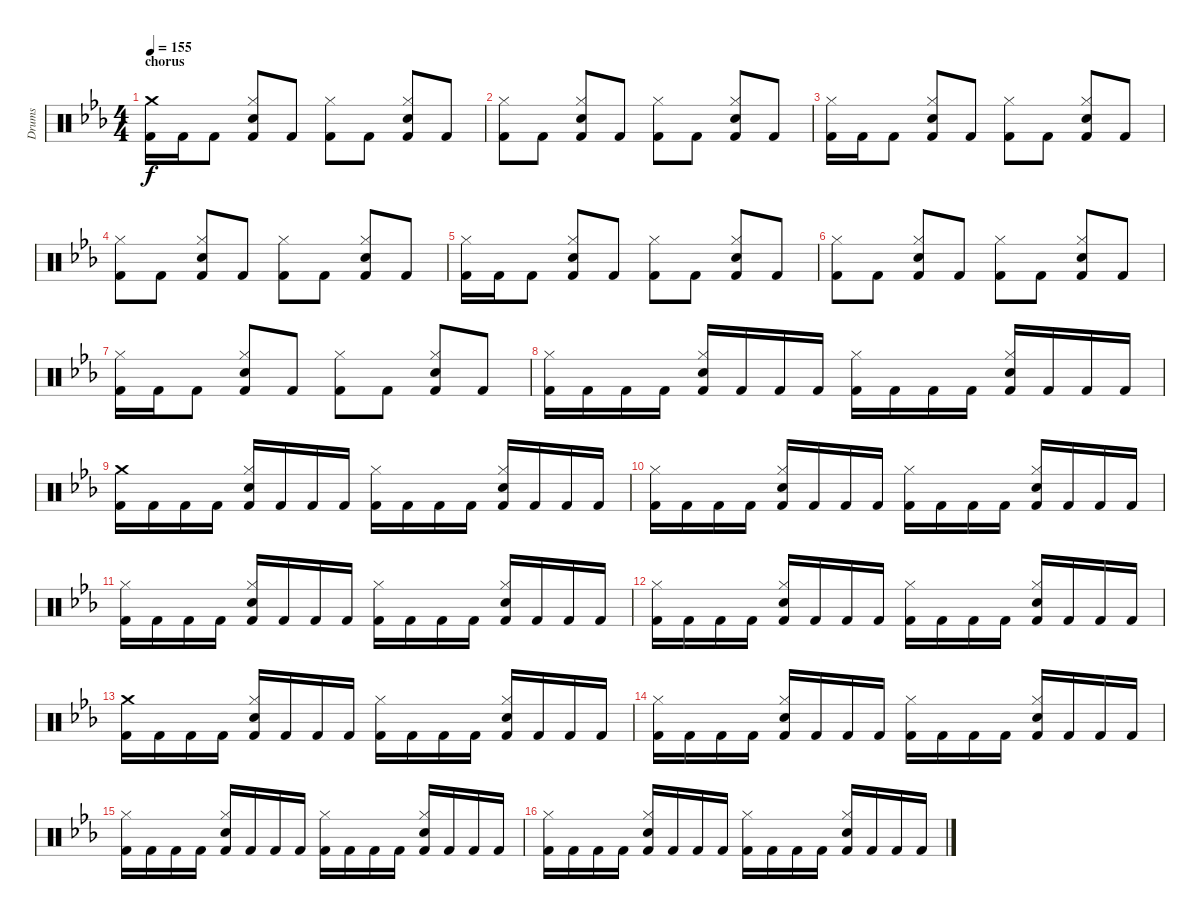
\track ("Drums" "Drums") {instrument percussion}
\staff {score}
\articulation defaults
\ts (4 4)
\section ("" "chorus")
\tempo 155
\clef neutral
\ks cminor
("Crash medium (hit)" "Kick (hit) 2").16{dy f} "Kick (hit) 2".16 "Kick (hit) 2".8 ("Hi-Hat (closed)" "Electric Snare (hit)" "Kick (hit) 2").8 "Kick (hit) 2".8 ("Hi-Hat (closed)" "Kick (hit) 2").8 "Kick (hit) 2".8 ("Hi-Hat (closed)" "Electric Snare (hit)" "Kick (hit) 2").8 "Kick (hit) 2".8 |
("Hi-Hat (closed)" "Kick (hit) 2").8 "Kick (hit) 2".8 ("Hi-Hat (closed)" "Electric Snare (hit)" "Kick (hit) 2").8 "Kick (hit) 2".8 ("Hi-Hat (closed)" "Kick (hit) 2").8 "Kick (hit) 2".8 ("Hi-Hat (closed)" "Electric Snare (hit)" "Kick (hit) 2").8 "Kick (hit) 2".8 |
("Kick (hit) 2" "Hi-Hat (closed)").16 "Kick (hit) 2".16 "Kick (hit) 2".8 ("Hi-Hat (closed)" "Electric Snare (hit)" "Kick (hit) 2").8 "Kick (hit) 2".8 ("Hi-Hat (closed)" "Kick (hit) 2").8 "Kick (hit) 2".8 ("Hi-Hat (closed)" "Electric Snare (hit)" "Kick (hit) 2").8 "Kick (hit) 2".8 |
("Hi-Hat (closed)" "Kick (hit) 2").8 "Kick (hit) 2".8 ("Hi-Hat (closed)" "Electric Snare (hit)" "Kick (hit) 2").8 "Kick (hit) 2".8 ("Hi-Hat (closed)" "Kick (hit) 2").8 "Kick (hit) 2".8 ("Hi-Hat (closed)" "Electric Snare (hit)" "Kick (hit) 2").8 "Kick (hit) 2".8 |
("Kick (hit) 2" "Hi-Hat (closed)").16 "Kick (hit) 2".16 "Kick (hit) 2".8 ("Hi-Hat (closed)" "Electric Snare (hit)" "Kick (hit) 2").8 "Kick (hit) 2".8 ("Hi-Hat (closed)" "Kick (hit) 2").8 "Kick (hit) 2".8 ("Hi-Hat (closed)" "Electric Snare (hit)" "Kick (hit) 2").8 "Kick (hit) 2".8 |
("Hi-Hat (closed)" "Kick (hit) 2").8 "Kick (hit) 2".8 ("Hi-Hat (closed)" "Electric Snare (hit)" "Kick (hit) 2").8 "Kick (hit) 2".8 ("Hi-Hat (closed)" "Kick (hit) 2").8 "Kick (hit) 2".8 ("Hi-Hat (closed)" "Electric Snare (hit)" "Kick (hit) 2").8 "Kick (hit) 2".8 |
("Kick (hit) 2" "Hi-Hat (closed)").16 "Kick (hit) 2".16 "Kick (hit) 2".8 ("Hi-Hat (closed)" "Electric Snare (hit)" "Kick (hit) 2").8 "Kick (hit) 2".8 ("Hi-Hat (closed)" "Kick (hit) 2").8 "Kick (hit) 2".8 ("Hi-Hat (closed)" "Electric Snare (hit)" "Kick (hit) 2").8 "Kick (hit) 2".8 |
("Hi-Hat (closed)" "Kick (hit) 2").16 "Kick (hit) 2".16 "Kick (hit) 2".16 "Kick (hit) 2".16 ("Hi-Hat (closed)" "Electric Snare (hit)" "Kick (hit) 2").16 "Kick (hit) 2".16 "Kick (hit) 2".16 "Kick (hit) 2".16 ("Hi-Hat (closed)" "Kick (hit) 2").16 "Kick (hit) 2".16 "Kick (hit) 2".16 "Kick (hit) 2".16 ("Hi-Hat (closed)" "Electric Snare (hit)" "Kick (hit) 2").16 "Kick (hit) 2".16 "Kick (hit) 2".16 "Kick (hit) 2".16 |
("Crash medium (hit)" "Kick (hit) 2").16 "Kick (hit) 2".16 "Kick (hit) 2".16 "Kick (hit) 2".16 ("Hi-Hat (closed)" "Electric Snare (hit)" "Kick (hit) 2").16 "Kick (hit) 2".16 "Kick (hit) 2".16 "Kick (hit) 2".16 ("Hi-Hat (closed)" "Kick (hit) 2").16 "Kick (hit) 2".16 "Kick (hit) 2".16 "Kick (hit) 2".16 ("Hi-Hat (closed)" "Electric Snare (hit)" "Kick (hit) 2").16 "Kick (hit) 2".16 "Kick (hit) 2".16 "Kick (hit) 2".16 |
("Hi-Hat (closed)" "Kick (hit) 2").16 "Kick (hit) 2".16 "Kick (hit) 2".16 "Kick (hit) 2".16 ("Hi-Hat (closed)" "Electric Snare (hit)" "Kick (hit) 2").16 "Kick (hit) 2".16 "Kick (hit) 2".16 "Kick (hit) 2".16 ("Hi-Hat (closed)" "Kick (hit) 2").16 "Kick (hit) 2".16 "Kick (hit) 2".16 "Kick (hit) 2".16 ("Hi-Hat (closed)" "Electric Snare (hit)" "Kick (hit) 2").16 "Kick (hit) 2".16 "Kick (hit) 2".16 "Kick (hit) 2".16 |
("Hi-Hat (closed)" "Kick (hit) 2").16 "Kick (hit) 2".16 "Kick (hit) 2".16 "Kick (hit) 2".16 ("Hi-Hat (closed)" "Electric Snare (hit)" "Kick (hit) 2").16 "Kick (hit) 2".16 "Kick (hit) 2".16 "Kick (hit) 2".16 ("Hi-Hat (closed)" "Kick (hit) 2").16 "Kick (hit) 2".16 "Kick (hit) 2".16 "Kick (hit) 2".16 ("Hi-Hat (closed)" "Electric Snare (hit)" "Kick (hit) 2").16 "Kick (hit) 2".16 "Kick (hit) 2".16 "Kick (hit) 2".16 |
("Hi-Hat (closed)" "Kick (hit) 2").16 "Kick (hit) 2".16 "Kick (hit) 2".16 "Kick (hit) 2".16 ("Hi-Hat (closed)" "Electric Snare (hit)" "Kick (hit) 2").16 "Kick (hit) 2".16 "Kick (hit) 2".16 "Kick (hit) 2".16 ("Hi-Hat (closed)" "Kick (hit) 2").16 "Kick (hit) 2".16 "Kick (hit) 2".16 "Kick (hit) 2".16 ("Hi-Hat (closed)" "Electric Snare (hit)" "Kick (hit) 2").16 "Kick (hit) 2".16 "Kick (hit) 2".16 "Kick (hit) 2".16 |
("Crash medium (hit)" "Kick (hit) 2").16 "Kick (hit) 2".16 "Kick (hit) 2".16 "Kick (hit) 2".16 ("Hi-Hat (closed)" "Electric Snare (hit)" "Kick (hit) 2").16 "Kick (hit) 2".16 "Kick (hit) 2".16 "Kick (hit) 2".16 ("Hi-Hat (closed)" "Kick (hit) 2").16 "Kick (hit) 2".16 "Kick (hit) 2".16 "Kick (hit) 2".16 ("Hi-Hat (closed)" "Electric Snare (hit)" "Kick (hit) 2").16 "Kick (hit) 2".16 "Kick (hit) 2".16 "Kick (hit) 2".16 |
("Hi-Hat (closed)" "Kick (hit) 2").16 "Kick (hit) 2".16 "Kick (hit) 2".16 "Kick (hit) 2".16 ("Hi-Hat (closed)" "Electric Snare (hit)" "Kick (hit) 2").16 "Kick (hit) 2".16 "Kick (hit) 2".16 "Kick (hit) 2".16 ("Hi-Hat (closed)" "Kick (hit) 2").16 "Kick (hit) 2".16 "Kick (hit) 2".16 "Kick (hit) 2".16 ("Hi-Hat (closed)" "Electric Snare (hit)" "Kick (hit) 2").16 "Kick (hit) 2".16 "Kick (hit) 2".16 "Kick (hit) 2".16 |
("Hi-Hat (closed)" "Kick (hit) 2").16 "Kick (hit) 2".16 "Kick (hit) 2".16 "Kick (hit) 2".16 ("Hi-Hat (closed)" "Electric Snare (hit)" "Kick (hit) 2").16 "Kick (hit) 2".16 "Kick (hit) 2".16 "Kick (hit) 2".16 ("Hi-Hat (closed)" "Kick (hit) 2").16 "Kick (hit) 2".16 "Kick (hit) 2".16 "Kick (hit) 2".16 ("Hi-Hat (closed)" "Electric Snare (hit)" "Kick (hit) 2").16 "Kick (hit) 2".16 "Kick (hit) 2".16 "Kick (hit) 2".16 |
("Hi-Hat (closed)" "Kick (hit) 2").16 "Kick (hit) 2".16 "Kick (hit) 2".16 "Kick (hit) 2".16 ("Hi-Hat (closed)" "Electric Snare (hit)" "Kick (hit) 2").16 "Kick (hit) 2".16 "Kick (hit) 2".16 "Kick (hit) 2".16 ("Hi-Hat (closed)" "Kick (hit) 2").16 "Kick (hit) 2".16 "Kick (hit) 2".16 "Kick (hit) 2".16 ("Hi-Hat (closed)" "Electric Snare (hit)" "Kick (hit) 2").16 "Kick (hit) 2".16 "Kick (hit) 2".16 "Kick (hit) 2".16
